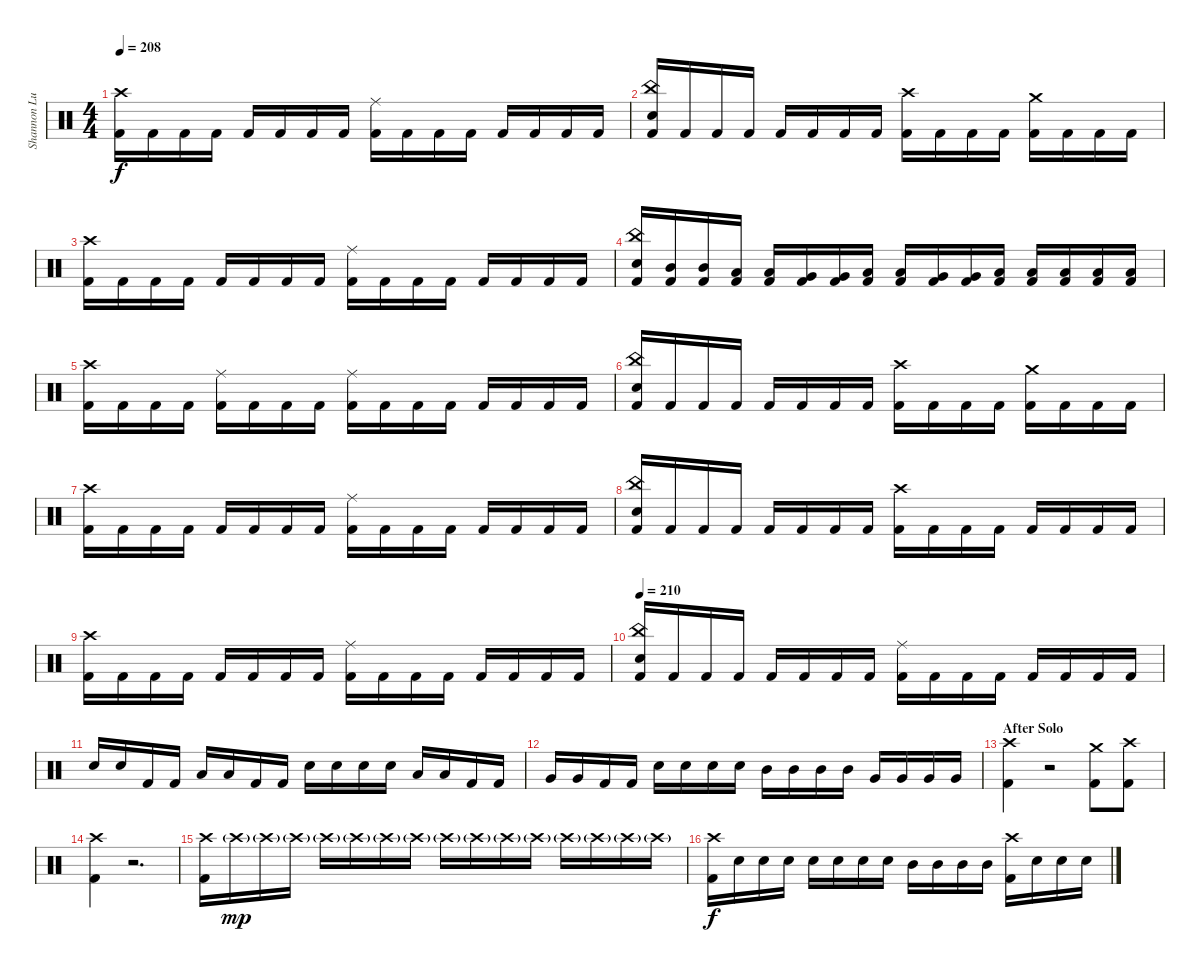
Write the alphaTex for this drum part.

\track ("Shannon Lucas [Drums (Since 2007)]" "Shannon Lu") {instrument percussion}
\staff {score}
\articulation defaults
\ts (4 4)
\tempo 208
\clef neutral
\ks c
("Crash high (hit)" "Kick (hit) 2").16{dy f} "Kick (hit) 2".16 "Kick (hit) 2".16 "Kick (hit) 2".16 "Kick (hit) 2".16 "Kick (hit) 2".16 "Kick (hit) 2".16 "Kick (hit) 2".16 ("Ride (middle)" "Kick (hit) 2").16 "Kick (hit) 2".16 "Kick (hit) 2".16 "Kick (hit) 2".16 "Kick (hit) 2".16 "Kick (hit) 2".16 "Kick (hit) 2".16 "Kick (hit) 2".16 |
("China (hit)" "Snare (hit) 2" "Kick (hit) 2").16 "Kick (hit) 2".16 "Kick (hit) 2".16 "Kick (hit) 2".16 "Kick (hit) 2".16 "Kick (hit) 2".16 "Kick (hit) 2".16 "Kick (hit) 2".16 ("Crash high (hit)" "Kick (hit) 2").16 "Kick (hit) 2".16 "Kick (hit) 2".16 "Kick (hit) 2".16 ("Crash medium (hit)" "Kick (hit) 2").16 "Kick (hit) 2".16 "Kick (hit) 2".16 "Kick (hit) 2".16 |
("Crash high (hit)" "Kick (hit) 2").16 "Kick (hit) 2".16 "Kick (hit) 2".16 "Kick (hit) 2".16 "Kick (hit) 2".16 "Kick (hit) 2".16 "Kick (hit) 2".16 "Kick (hit) 2".16 ("Ride (middle)" "Kick (hit) 2").16 "Kick (hit) 2".16 "Kick (hit) 2".16 "Kick (hit) 2".16 "Kick (hit) 2".16 "Kick (hit) 2".16 "Kick (hit) 2".16 "Kick (hit) 2".16 |
("China (hit)" "Snare (hit) 2" "Kick (hit) 2").16 ("Mid Tom (hit)" "Kick (hit) 2").16 ("Mid Tom (hit)" "Kick (hit) 2").16 ("Low Tom (hit)" "Kick (hit) 2").16 ("Low Tom (hit)" "Kick (hit) 2").16 ("Very Low Tom (hit)" "Kick (hit) 2").16 ("Very Low Tom (hit)" "Kick (hit) 2").16 ("Low Tom (hit)" "Kick (hit) 2").16 ("Low Tom (hit)" "Kick (hit) 2").16 ("Very Low Tom (hit)" "Kick (hit) 2").16 ("Very Low Tom (hit)" "Kick (hit) 2").16 ("Low Tom (hit)" "Kick (hit) 2").16 ("Low Tom (hit)" "Kick (hit) 2").16 ("Low Floor Tom (hit)" "Kick (hit) 2").16 ("Low Floor Tom (hit)" "Kick (hit) 2").16 ("Low Floor Tom (hit)" "Kick (hit) 2").16 |
("Crash high (hit)" "Kick (hit) 2").16 "Kick (hit) 2".16 "Kick (hit) 2".16 "Kick (hit) 2".16 ("Ride (middle)" "Kick (hit) 2").16 "Kick (hit) 2".16 "Kick (hit) 2".16 "Kick (hit) 2".16 ("Ride (middle)" "Kick (hit) 2").16 "Kick (hit) 2".16 "Kick (hit) 2".16 "Kick (hit) 2".16 "Kick (hit) 2".16 "Kick (hit) 2".16 "Kick (hit) 2".16 "Kick (hit) 2".16 |
("China (hit)" "Snare (hit) 2" "Kick (hit) 2").16 "Kick (hit) 2".16 "Kick (hit) 2".16 "Kick (hit) 2".16 "Kick (hit) 2".16 "Kick (hit) 2".16 "Kick (hit) 2".16 "Kick (hit) 2".16 ("Crash high (hit)" "Kick (hit) 2").16 "Kick (hit) 2".16 "Kick (hit) 2".16 "Kick (hit) 2".16 ("Crash medium (hit)" "Kick (hit) 2").16 "Kick (hit) 2".16 "Kick (hit) 2".16 "Kick (hit) 2".16 |
("Crash high (hit)" "Kick (hit) 2").16 "Kick (hit) 2".16 "Kick (hit) 2".16 "Kick (hit) 2".16 "Kick (hit) 2".16 "Kick (hit) 2".16 "Kick (hit) 2".16 "Kick (hit) 2".16 ("Ride (middle)" "Kick (hit) 2").16 "Kick (hit) 2".16 "Kick (hit) 2".16 "Kick (hit) 2".16 "Kick (hit) 2".16 "Kick (hit) 2".16 "Kick (hit) 2".16 "Kick (hit) 2".16 |
("China (hit)" "Snare (hit) 2" "Kick (hit) 2").16 "Kick (hit) 2".16 "Kick (hit) 2".16 "Kick (hit) 2".16 "Kick (hit) 2".16 "Kick (hit) 2".16 "Kick (hit) 2".16 "Kick (hit) 2".16 ("Crash high (hit)" "Kick (hit) 2").16 "Kick (hit) 2".16 "Kick (hit) 2".16 "Kick (hit) 2".16 "Kick (hit) 2".16 "Kick (hit) 2".16 "Kick (hit) 2".16 "Kick (hit) 2".16 |
("Crash high (hit)" "Kick (hit) 2").16 "Kick (hit) 2".16 "Kick (hit) 2".16 "Kick (hit) 2".16 "Kick (hit) 2".16 "Kick (hit) 2".16 "Kick (hit) 2".16 "Kick (hit) 2".16 ("Ride (middle)" "Kick (hit) 2").16 "Kick (hit) 2".16 "Kick (hit) 2".16 "Kick (hit) 2".16 "Kick (hit) 2".16 "Kick (hit) 2".16 "Kick (hit) 2".16 "Kick (hit) 2".16 |
\tempo 210
("China (hit)" "Snare (hit) 2" "Kick (hit) 2").16 "Kick (hit) 2".16 "Kick (hit) 2".16 "Kick (hit) 2".16 "Kick (hit) 2".16 "Kick (hit) 2".16 "Kick (hit) 2".16 "Kick (hit) 2".16 ("Ride (middle)" "Kick (hit) 2").16 "Kick (hit) 2".16 "Kick (hit) 2".16 "Kick (hit) 2".16 "Kick (hit) 2".16 "Kick (hit) 2".16 "Kick (hit) 2".16 "Kick (hit) 2".16 |
"Snare (hit) 2".16 "Snare (hit) 2".16 "Kick (hit) 2".16 "Kick (hit) 2".16 "Low Tom (hit)".16 "Low Tom (hit)".16 "Kick (hit) 2".16 "Kick (hit) 2".16 "Snare (hit) 2".16 "Snare (hit) 2".16 "Snare (hit) 2".16 "Snare (hit) 2".16 "Low Tom (hit)".16 "Low Tom (hit)".16 "Kick (hit) 2".16 "Kick (hit) 2".16 |
"Very Low Tom (hit)".16 "Very Low Tom (hit)".16 "Kick (hit) 2".16 "Kick (hit) 2".16 "Snare (hit) 2".16 "Snare (hit) 2".16 "Snare (hit) 2".16 "Snare (hit) 2".16 "Mid Tom (hit)".16 "Mid Tom (hit)".16 "Mid Tom (hit)".16 "Mid Tom (hit)".16 "Very Low Tom (hit)".16 "Very Low Tom (hit)".16 "Very Low Tom (hit)".16 "Very Low Tom (hit)".16 |
\section ("" "After Solo")
("Crash high (hit)" "Kick (hit) 2").4 r.2 ("Crash medium (hit)" "Kick (hit) 2").8 ("Crash high (hit)" "Kick (hit) 2").8 |
("Crash high (hit)" "Kick (hit) 2").4 r.2{d} |
("Crash high (hit)" "Kick (hit) 2").16 "Crash high (hit)"{g}.16{dy mp} "Crash high (hit)"{g}.16 "Crash high (hit)"{g}.16 "Crash high (hit)"{g}.16 "Crash high (hit)"{g}.16 "Crash high (hit)"{g}.16 "Crash high (hit)"{g}.16 "Crash high (hit)"{g}.16 "Crash high (hit)"{g}.16 "Crash high (hit)"{g}.16 "Crash high (hit)"{g}.16 "Crash high (hit)"{g}.16 "Crash high (hit)"{g}.16 "Crash high (hit)"{g}.16 "Crash high (hit)"{g}.16 |
("Crash high (hit)" "Kick (hit) 2").16{dy f} "Snare (hit) 2".16 "Snare (hit) 2".16 "Snare (hit) 2".16 "Snare (hit) 2".16 "Snare (hit) 2".16 "Snare (hit) 2".16 "Snare (hit) 2".16 "Mid Tom (hit)".16 "Mid Tom (hit)".16 "Mid Tom (hit)".16 "Mid Tom (hit)".16 ("Crash high (hit)" "Kick (hit) 2").16 "Snare (hit) 2".16 "Snare (hit) 2".16 "Snare (hit) 2".16
